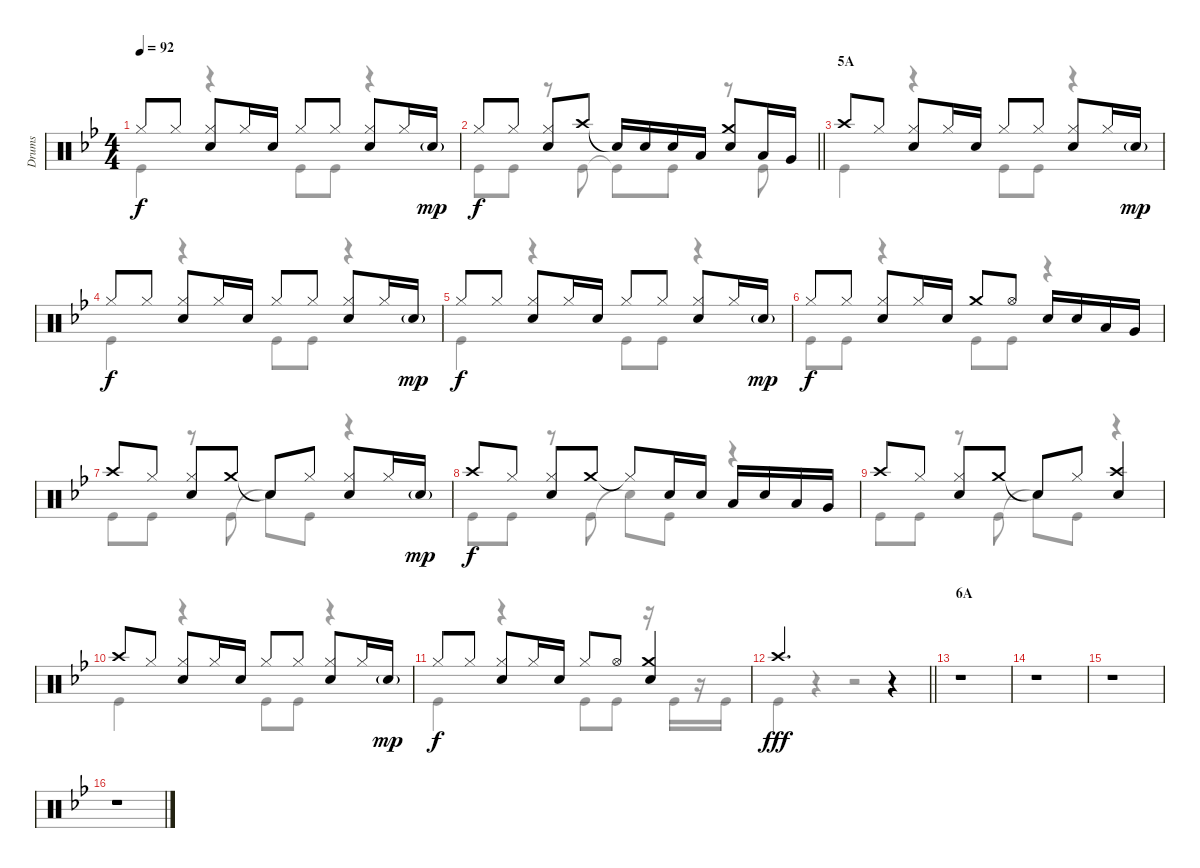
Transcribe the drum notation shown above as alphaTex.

\track ("Drums" "Drums") {instrument percussion}
\staff {score}
\articulation defaults
\voice
\ts (4 4)
\tempo 92
\clef neutral
\ks bb "Hi-Hat (closed)".8{dy f} "Hi-Hat (closed)".8
("Hi-Hat (closed)" "Snare (hit) 2").8 "Hi-Hat (closed)".16 "Snare (hit) 2".16 "Hi-Hat (closed)".8 "Hi-Hat (closed)".8 ("Hi-Hat (closed)" "Snare (hit) 2").8 "Hi-Hat (closed)".16 "Snare (hit) 2"{g}.16{dy mp} |
\barLineRight lightlight "Hi-Hat (closed)".8{dy f} "Hi-Hat (closed)".8
("Hi-Hat (closed)" "Snare (hit) 2").8 "Crash high (hit)".8 "Snare (hit)"{t}.16 "Snare (hit) 2".16 "Snare (hit) 2".16 "Low Tom (hit)".16 ("Crash medium (hit)" "Snare (hit) 2").8 "Low Tom (hit)".16 "Very Low Tom (hit)".16 |
\section ("" "5A")
"Crash high (hit)".8 "Hi-Hat (closed)".8 ("Hi-Hat (closed)" "Snare (hit) 2").8 "Hi-Hat (closed)".16 "Snare (hit) 2".16 "Hi-Hat (closed)".8 "Hi-Hat (closed)".8 ("Hi-Hat (closed)" "Snare (hit) 2").8 "Hi-Hat (closed)".16 "Snare (hit) 2"{g}.16{dy mp} |
"Hi-Hat (closed)".8{dy f} "Hi-Hat (closed)".8 ("Hi-Hat (closed)" "Snare (hit) 2").8 "Hi-Hat (closed)".16 "Snare (hit) 2".16 "Hi-Hat (closed)".8 "Hi-Hat (closed)".8 ("Hi-Hat (closed)" "Snare (hit) 2").8 "Hi-Hat (closed)".16 "Snare (hit) 2"{g}.16{dy mp} |
"Hi-Hat (closed)".8{dy f} "Hi-Hat (closed)".8 ("Hi-Hat (closed)" "Snare (hit) 2").8 "Hi-Hat (closed)".16 "Snare (hit) 2".16 "Hi-Hat (closed)".8 "Hi-Hat (closed)".8 ("Hi-Hat (closed)" "Snare (hit) 2").8 "Hi-Hat (closed)".16 "Snare (hit) 2"{g}.16{dy mp} |
"Hi-Hat (closed)".8{dy f} "Hi-Hat (closed)".8 ("Hi-Hat (closed)" "Snare (hit) 2").8 "Hi-Hat (closed)".16 "Snare (hit) 2".16 "Crash medium (hit)".8 "Hi-Hat (open)".8 "Snare (hit) 2".16 "Snare (hit) 2".16 "Low Tom (hit)".16 "Very Low Tom (hit)".16 |
"Crash high (hit)".8 "Hi-Hat (closed)".8 ("Hi-Hat (closed)" "Snare (hit) 2").8 "Crash medium (hit)".8 "Snare (hit)"{t}.8 "Hi-Hat (closed)".8 ("Hi-Hat (closed)" "Snare (hit) 2").8 "Hi-Hat (closed)".16 "Snare (hit) 2"{g}.16{dy mp} |
"Crash high (hit)".8{dy f} "Hi-Hat (closed)".8 ("Hi-Hat (closed)" "Snare (hit) 2").8 "Crash medium (hit)".8 "Hi-Hat (closed)"{t}.8 "Snare (hit) 2".16 "Snare (hit) 2".16 "Low Tom (hit)".16 "Snare (hit) 2".16 "Low Tom (hit)".16 "Very Low Tom (hit)".16 |
"Crash high (hit)".8 "Hi-Hat (closed)".8 ("Hi-Hat (closed)" "Snare (hit) 2").8 "Crash medium (hit)".8 "Snare (hit)"{t}.8 "Hi-Hat (closed)".8 ("Crash high (hit)" "Snare (hit) 2").4 |
"Crash high (hit)".8 "Hi-Hat (closed)".8 ("Hi-Hat (closed)" "Snare (hit) 2").8 "Hi-Hat (closed)".16 "Snare (hit) 2".16 "Hi-Hat (closed)".8 "Hi-Hat (closed)".8 ("Hi-Hat (closed)" "Snare (hit) 2").8 "Hi-Hat (closed)".16 "Snare (hit) 2"{g}.16{dy mp} |
"Hi-Hat (closed)".8{dy f} "Hi-Hat (closed)".8 ("Hi-Hat (closed)" "Snare (hit) 2").8 "Hi-Hat (closed)".16 "Snare (hit) 2".16 "Hi-Hat (closed)".8 "Hi-Hat (open)".8 ("Crash medium (hit)" "Snare (hit) 2").4 |
\barLineRight lightlight "Crash high (hit)".2{d dy fff}
r.4 |
\section ("" "6A")
r.1 |
r.1 |
r.1 |
r.1
\voice
\clef neutral
\ottava regular
\simile none
\ks bb "Kick (hit)".4{dy f}
r.4 "Kick (hit)".8 "Kick (hit)".8 r.4 |
\barLineRight lightlight "Kick (hit)".8 "Kick (hit)".8
r.8 "Kick (hit)".8 "Kick (hit)"{t}.8 "Kick (hit)".8 r.8 "Kick (hit)".8 |
"Kick (hit)".4 r.4 "Kick (hit)".8 "Kick (hit)".8 r.4 |
"Kick (hit)".4 r.4 "Kick (hit)".8 "Kick (hit)".8 r.4 |
"Kick (hit)".4 r.4 "Kick (hit)".8 "Kick (hit)".8 r.4 |
"Kick (hit)".8 "Kick (hit)".8 r.4 "Kick (hit)".8 "Kick (hit)".8 r.4 |
"Kick (hit)".8 "Kick (hit)".8 r.8 "Kick (hit)".8 "Snare (hit)"{t}.8 "Kick (hit)".8 r.4 |
"Kick (hit)".8 "Kick (hit)".8 r.8 "Kick (hit)".8 "Snare (hit)"{t}.8 "Kick (hit)".8 r.4 |
"Kick (hit)".8 "Kick (hit)".8 r.8 "Kick (hit)".8 "Snare (hit)"{t}.8 "Kick (hit)".8 r.4 |
"Kick (hit)".4 r.4 "Kick (hit)".8 "Kick (hit)".8 r.4 |
"Kick (hit)".4 r.4 "Kick (hit)".8 "Kick (hit)".8 r.16 "Kick (hit)".16 r.16 "Kick (hit)".16 |
\barLineRight lightlight "Kick (hit)".4
r.4 r.2 |
r.1 |
r.1 |
r.1 |
r.1
